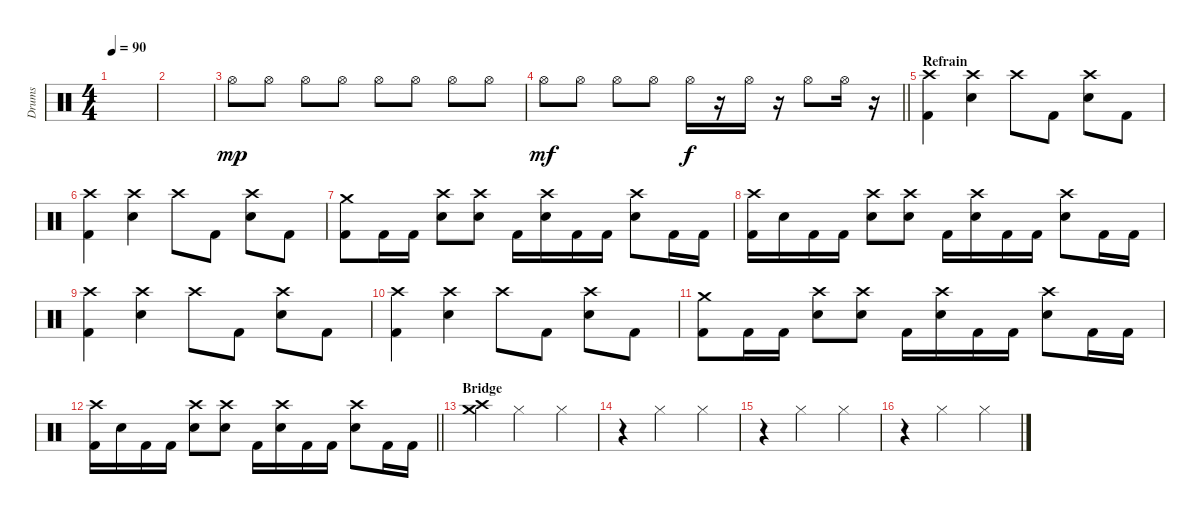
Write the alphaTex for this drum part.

\track ("Drums" "Drums") {instrument percussion}
\staff {score}
\articulation defaults
\ts (4 4)
\tempo 90
\clef neutral
\ks c
|
|
"Hi-Hat (open)".8{dy mp} "Hi-Hat (open)".8 "Hi-Hat (open)".8 "Hi-Hat (open)".8 "Hi-Hat (open)".8 "Hi-Hat (open)".8 "Hi-Hat (open)".8 "Hi-Hat (open)".8 |
\barLineRight lightlight "Hi-Hat (open)".8{dy mf} "Hi-Hat (open)".8 "Hi-Hat (open)".8 "Hi-Hat (open)".8 "Hi-Hat (open)".16{dy f}
r.16 "Hi-Hat (open)".16 r.16 "Hi-Hat (open)".8 "Hi-Hat (open)".16 r.16 |
\section ("" "Refrain")
("Crash high (hit)" "Kick (hit) 2").4 ("Snare (hit) 2" "Crash high (hit)").4 "Crash high (hit)".8 "Kick (hit) 2".8 ("Snare (hit) 2" "Crash high (hit)").8 "Kick (hit) 2".8 |
("Crash high (hit)" "Kick (hit) 2").4 ("Snare (hit) 2" "Crash high (hit)").4 "Crash high (hit)".8 "Kick (hit) 2".8 ("Snare (hit) 2" "Crash high (hit)").8 "Kick (hit) 2".8 |
("Crash medium (hit)" "Kick (hit) 2").8 "Kick (hit) 2".16 "Kick (hit) 2".16 ("Snare (hit) 2" "Crash high (hit)").8 ("Snare (hit) 2" "Crash high (hit)").8 "Kick (hit) 2".16 ("Snare (hit) 2" "Crash high (hit)").16 "Kick (hit) 2".16 "Kick (hit) 2".16 ("Snare (hit) 2" "Crash high (hit)").8 "Kick (hit) 2".16 "Kick (hit) 2".16 |
("Crash high (hit)" "Kick (hit) 2").16 "Snare (hit) 2".16 "Kick (hit) 2".16 "Kick (hit) 2".16 ("Snare (hit) 2" "Crash high (hit)").8 ("Snare (hit) 2" "Crash high (hit)").8 "Kick (hit) 2".16 ("Snare (hit) 2" "Crash high (hit)").16 "Kick (hit) 2".16 "Kick (hit) 2".16 ("Snare (hit) 2" "Crash high (hit)").8 "Kick (hit) 2".16 "Kick (hit) 2".16 |
("Crash high (hit)" "Kick (hit) 2").4 ("Snare (hit) 2" "Crash high (hit)").4 "Crash high (hit)".8 "Kick (hit) 2".8 ("Snare (hit) 2" "Crash high (hit)").8 "Kick (hit) 2".8 |
("Crash high (hit)" "Kick (hit) 2").4 ("Snare (hit) 2" "Crash high (hit)").4 "Crash high (hit)".8 "Kick (hit) 2".8 ("Snare (hit) 2" "Crash high (hit)").8 "Kick (hit) 2".8 |
("Crash medium (hit)" "Kick (hit) 2").8 "Kick (hit) 2".16 "Kick (hit) 2".16 ("Snare (hit) 2" "Crash high (hit)").8 ("Snare (hit) 2" "Crash high (hit)").8 "Kick (hit) 2".16 ("Snare (hit) 2" "Crash high (hit)").16 "Kick (hit) 2".16 "Kick (hit) 2".16 ("Snare (hit) 2" "Crash high (hit)").8 "Kick (hit) 2".16 "Kick (hit) 2".16 |
\barLineRight lightlight
("Crash high (hit)" "Kick (hit) 2").16 "Snare (hit) 2".16 "Kick (hit) 2".16 "Kick (hit) 2".16 ("Snare (hit) 2" "Crash high (hit)").8 ("Snare (hit) 2" "Crash high (hit)").8 "Kick (hit) 2".16 ("Snare (hit) 2" "Crash high (hit)").16 "Kick (hit) 2".16 "Kick (hit) 2".16 ("Snare (hit) 2" "Crash high (hit)").8 "Kick (hit) 2".16 "Kick (hit) 2".16 |
\section ("" "Bridge")
("Crash medium (hit)" "Crash high (hit)").4 "Hi-Hat (closed)".2 "Hi-Hat (closed)".4 |
r.4 "Hi-Hat (closed)".2 "Hi-Hat (closed)".4 |
r.4 "Hi-Hat (closed)".2 "Hi-Hat (closed)".4 |
r.4 "Hi-Hat (closed)".2 "Hi-Hat (closed)".4
